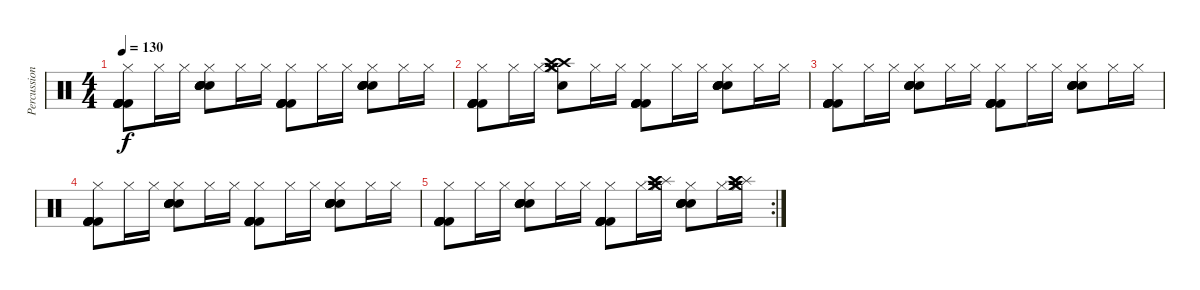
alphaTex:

\track ("Percussion" "Percussion") {instrument percussion}
\staff {score}
\articulation defaults
\ts (4 4)
\tempo 130
\clef neutral
\ks c
("Hi-Hat (closed)" "Kick (hit) 2" "Kick (hit) 2" "Kick (hit) 2" "Kick (hit) 2" "Kick (hit) 2").8{dy f} "Hi-Hat (closed)".16 "Hi-Hat (closed)".16 ("Hi-Hat (closed)" "Electric Snare (hit)" "Snare (hit) 2" "Snare (hit) 2" "Electric Snare (hit)" "Electric Snare (hit)").8 "Hi-Hat (closed)".16 "Hi-Hat (closed)".16 ("Hi-Hat (closed)" "Kick (hit) 2" "Kick (hit) 2" "Kick (hit) 2" "Kick (hit) 2" "Kick (hit) 2").8 "Hi-Hat (closed)".16 "Hi-Hat (closed)".16 ("Hi-Hat (closed)" "Snare (hit) 2" "Snare (hit) 2" "Electric Snare (hit)" "Electric Snare (hit)" "Electric Snare (hit)").8 "Hi-Hat (closed)".16 "Hi-Hat (closed)".16 |
("Hi-Hat (closed)" "Kick (hit) 2" "Kick (hit) 2" "Kick (hit) 2" "Kick (hit) 2" "Kick (hit) 2").8 "Hi-Hat (closed)".16 "Hi-Hat (closed)".16 ("Hi-Hat (closed)" "Electric Snare (hit)" "Crash high (hit)" "Crash high (hit)" "Crash medium (hit)" "Crash medium (hit)").8 "Hi-Hat (closed)".16 "Hi-Hat (closed)".16 ("Hi-Hat (closed)" "Kick (hit) 2" "Kick (hit) 2" "Kick (hit) 2" "Kick (hit) 2" "Kick (hit) 2").8 "Hi-Hat (closed)".16 "Hi-Hat (closed)".16 ("Hi-Hat (closed)" "Snare (hit) 2" "Snare (hit) 2" "Electric Snare (hit)" "Electric Snare (hit)" "Electric Snare (hit)").8 "Hi-Hat (closed)".16 "Hi-Hat (closed)".16 |
("Hi-Hat (closed)" "Kick (hit) 2" "Kick (hit) 2" "Kick (hit) 2" "Kick (hit) 2" "Kick (hit) 2").8 "Hi-Hat (closed)".16 "Hi-Hat (closed)".16 ("Hi-Hat (closed)" "Electric Snare (hit)" "Snare (hit) 2" "Snare (hit) 2" "Electric Snare (hit)" "Electric Snare (hit)").8 "Hi-Hat (closed)".16 "Hi-Hat (closed)".16 ("Hi-Hat (closed)" "Kick (hit) 2" "Kick (hit) 2" "Kick (hit) 2" "Kick (hit) 2" "Kick (hit) 2").8 "Hi-Hat (closed)".16 "Hi-Hat (closed)".16 ("Hi-Hat (closed)" "Snare (hit) 2" "Snare (hit) 2" "Electric Snare (hit)" "Electric Snare (hit)" "Electric Snare (hit)").8 "Hi-Hat (closed)".16 "Hi-Hat (closed)".16 |
("Hi-Hat (closed)" "Kick (hit) 2" "Kick (hit) 2" "Kick (hit) 2" "Kick (hit) 2" "Kick (hit) 2").8 "Hi-Hat (closed)".16 "Hi-Hat (closed)".16 ("Hi-Hat (closed)" "Electric Snare (hit)" "Snare (hit) 2" "Snare (hit) 2" "Electric Snare (hit)" "Electric Snare (hit)").8 "Hi-Hat (closed)".16 "Hi-Hat (closed)".16 ("Hi-Hat (closed)" "Kick (hit) 2" "Kick (hit) 2" "Kick (hit) 2" "Kick (hit) 2" "Kick (hit) 2").8 "Hi-Hat (closed)".16 "Hi-Hat (closed)".16 ("Hi-Hat (closed)" "Snare (hit) 2" "Snare (hit) 2" "Electric Snare (hit)" "Electric Snare (hit)" "Electric Snare (hit)").8 "Hi-Hat (closed)".16 "Hi-Hat (closed)".16 |
\rc 2
("Hi-Hat (closed)" "Kick (hit) 2" "Kick (hit) 2" "Kick (hit) 2" "Kick (hit) 2" "Kick (hit) 2").8 "Hi-Hat (closed)".16 "Hi-Hat (closed)".16 ("Hi-Hat (closed)" "Electric Snare (hit)" "Snare (hit) 2" "Snare (hit) 2" "Electric Snare (hit)" "Electric Snare (hit)").8 "Hi-Hat (closed)".16 "Hi-Hat (closed)".16 ("Hi-Hat (closed)" "Kick (hit) 2" "Kick (hit) 2" "Kick (hit) 2" "Kick (hit) 2" "Kick (hit) 2").8 "Hi-Hat (closed)".16 ("Hi-Hat (closed)" "Splash (hit)" "Crash medium (hit)" "Crash high (hit)" "Crash high (hit)" "Crash medium (hit)").16 ("Hi-Hat (closed)" "Snare (hit) 2" "Snare (hit) 2" "Electric Snare (hit)" "Electric Snare (hit)" "Electric Snare (hit)").8 "Hi-Hat (closed)".16 ("Hi-Hat (closed)" "Splash (hit)" "Crash medium (hit)" "Crash high (hit)" "Crash high (hit)" "Crash medium (hit)").16
